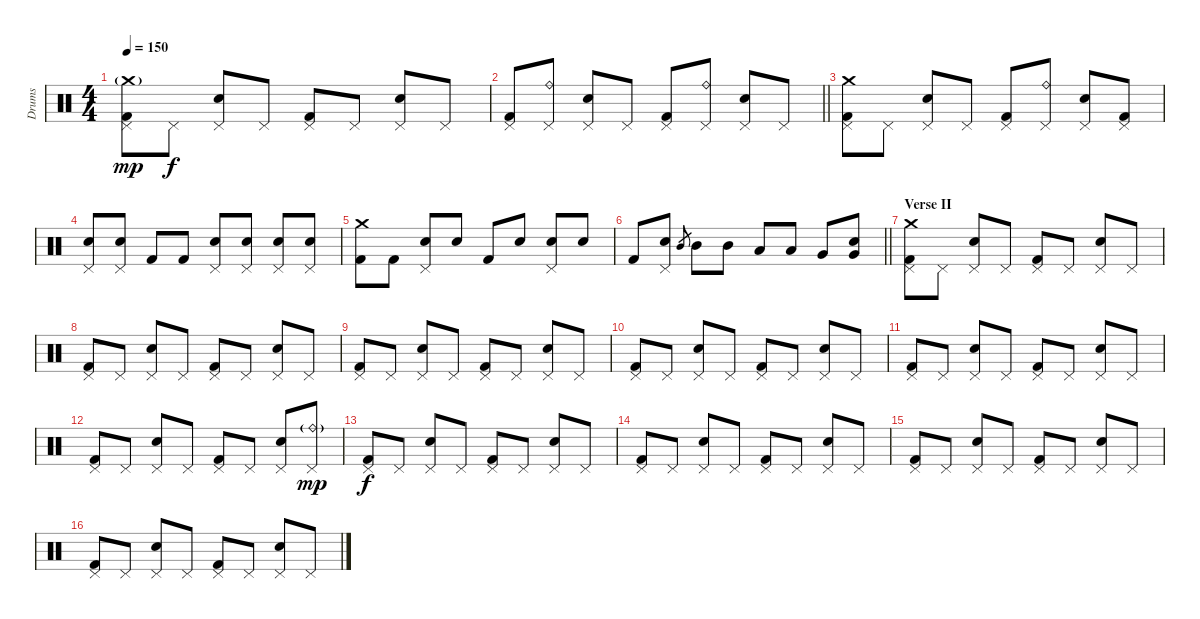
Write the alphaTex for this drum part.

\track ("Drums" "Drums") {instrument percussion}
\staff {score}
\articulation defaults
\ts (4 4)
\tempo 150
\clef neutral
\ks c
("Crash medium (hit)"{g} "Pedal Hi-Hat (hit)" "Kick (hit) 2").8{dy mp} "Pedal Hi-Hat (hit)".8{dy f} ("Pedal Hi-Hat (hit)" "Electric Snare (hit)").8 "Pedal Hi-Hat (hit)".8 ("Pedal Hi-Hat (hit)" "Kick (hit) 2").8 "Pedal Hi-Hat (hit)".8 ("Pedal Hi-Hat (hit)" "Electric Snare (hit)").8 "Pedal Hi-Hat (hit)".8 |
\barLineRight lightlight
("Pedal Hi-Hat (hit)" "Kick (hit) 2").8 ("Ride (bell)" "Pedal Hi-Hat (hit)").8 ("Pedal Hi-Hat (hit)" "Electric Snare (hit)").8 "Pedal Hi-Hat (hit)".8 ("Pedal Hi-Hat (hit)" "Kick (hit) 2").8 ("Ride (bell)" "Pedal Hi-Hat (hit)").8 ("Pedal Hi-Hat (hit)" "Electric Snare (hit)").8 "Pedal Hi-Hat (hit)".8 |
("Crash medium (hit)" "Pedal Hi-Hat (hit)" "Kick (hit) 2").8 "Pedal Hi-Hat (hit)".8 ("Pedal Hi-Hat (hit)" "Electric Snare (hit)").8 "Pedal Hi-Hat (hit)".8 ("Pedal Hi-Hat (hit)" "Kick (hit) 2").8 ("Ride (bell)" "Pedal Hi-Hat (hit)").8 ("Pedal Hi-Hat (hit)" "Electric Snare (hit)").8 ("Pedal Hi-Hat (hit)" "Kick (hit) 2").8 |
("Pedal Hi-Hat (hit)" "Electric Snare (hit)").8 ("Pedal Hi-Hat (hit)" "Electric Snare (hit)").8 "Kick (hit) 2".8 "Kick (hit) 2".8 ("Pedal Hi-Hat (hit)" "Electric Snare (hit)").8 ("Pedal Hi-Hat (hit)" "Electric Snare (hit)").8 ("Pedal Hi-Hat (hit)" "Electric Snare (hit)").8 ("Pedal Hi-Hat (hit)" "Electric Snare (hit)").8 |
("Crash medium (hit)" "Kick (hit) 2").8 "Kick (hit) 2".8 ("Pedal Hi-Hat (hit)" "Electric Snare (hit)").8 "Snare (hit)".8 "Kick (hit) 2".8 "Snare (hit)".8 ("Pedal Hi-Hat (hit)" "Electric Snare (hit)").8 "Snare (hit)".8 |
\barLineRight lightlight "Kick (hit) 2".8
("Pedal Hi-Hat (hit)" "Electric Snare (hit)").8 "Mid Tom (hit)".8{gr} "Mid Tom (hit)".8 "Mid Tom (hit)".8 "Low Tom (hit)".8 "Low Tom (hit)".8 "Very Low Tom (hit)".8 ("Very Low Tom (hit)" "Electric Snare (hit)").8 |
\section ("" "Verse II")
("Crash medium (hit)" "Pedal Hi-Hat (hit)" "Kick (hit) 2").8 "Pedal Hi-Hat (hit)".8 ("Pedal Hi-Hat (hit)" "Electric Snare (hit)").8 "Pedal Hi-Hat (hit)".8 ("Pedal Hi-Hat (hit)" "Kick (hit) 2").8 "Pedal Hi-Hat (hit)".8 ("Pedal Hi-Hat (hit)" "Electric Snare (hit)").8 "Pedal Hi-Hat (hit)".8 |
("Pedal Hi-Hat (hit)" "Kick (hit) 2").8 "Pedal Hi-Hat (hit)".8 ("Pedal Hi-Hat (hit)" "Electric Snare (hit)").8 "Pedal Hi-Hat (hit)".8 ("Pedal Hi-Hat (hit)" "Kick (hit) 2").8 "Pedal Hi-Hat (hit)".8 ("Pedal Hi-Hat (hit)" "Electric Snare (hit)").8 "Pedal Hi-Hat (hit)".8 |
("Pedal Hi-Hat (hit)" "Kick (hit) 2").8 "Pedal Hi-Hat (hit)".8 ("Pedal Hi-Hat (hit)" "Electric Snare (hit)").8 "Pedal Hi-Hat (hit)".8 ("Pedal Hi-Hat (hit)" "Kick (hit) 2").8 "Pedal Hi-Hat (hit)".8 ("Pedal Hi-Hat (hit)" "Electric Snare (hit)").8 "Pedal Hi-Hat (hit)".8 |
("Pedal Hi-Hat (hit)" "Kick (hit) 2").8 "Pedal Hi-Hat (hit)".8 ("Pedal Hi-Hat (hit)" "Electric Snare (hit)").8 "Pedal Hi-Hat (hit)".8 ("Pedal Hi-Hat (hit)" "Kick (hit) 2").8 "Pedal Hi-Hat (hit)".8 ("Pedal Hi-Hat (hit)" "Electric Snare (hit)").8 "Pedal Hi-Hat (hit)".8 |
("Pedal Hi-Hat (hit)" "Kick (hit) 2").8 "Pedal Hi-Hat (hit)".8 ("Pedal Hi-Hat (hit)" "Electric Snare (hit)").8 "Pedal Hi-Hat (hit)".8 ("Pedal Hi-Hat (hit)" "Kick (hit) 2").8 "Pedal Hi-Hat (hit)".8 ("Pedal Hi-Hat (hit)" "Electric Snare (hit)").8 "Pedal Hi-Hat (hit)".8 |
("Pedal Hi-Hat (hit)" "Kick (hit) 2").8 "Pedal Hi-Hat (hit)".8 ("Pedal Hi-Hat (hit)" "Electric Snare (hit)").8 "Pedal Hi-Hat (hit)".8 ("Pedal Hi-Hat (hit)" "Kick (hit) 2").8 "Pedal Hi-Hat (hit)".8 ("Pedal Hi-Hat (hit)" "Electric Snare (hit)").8 ("Ride (bell)"{g} "Pedal Hi-Hat (hit)").8{dy mp} |
("Pedal Hi-Hat (hit)" "Kick (hit) 2").8{dy f} "Pedal Hi-Hat (hit)".8 ("Pedal Hi-Hat (hit)" "Electric Snare (hit)").8 "Pedal Hi-Hat (hit)".8 ("Pedal Hi-Hat (hit)" "Kick (hit) 2").8 "Pedal Hi-Hat (hit)".8 ("Pedal Hi-Hat (hit)" "Electric Snare (hit)").8 "Pedal Hi-Hat (hit)".8 |
("Pedal Hi-Hat (hit)" "Kick (hit) 2").8 "Pedal Hi-Hat (hit)".8 ("Pedal Hi-Hat (hit)" "Electric Snare (hit)").8 "Pedal Hi-Hat (hit)".8 ("Pedal Hi-Hat (hit)" "Kick (hit) 2").8 "Pedal Hi-Hat (hit)".8 ("Pedal Hi-Hat (hit)" "Electric Snare (hit)").8 "Pedal Hi-Hat (hit)".8 |
("Pedal Hi-Hat (hit)" "Kick (hit) 2").8 "Pedal Hi-Hat (hit)".8 ("Pedal Hi-Hat (hit)" "Electric Snare (hit)").8 "Pedal Hi-Hat (hit)".8 ("Pedal Hi-Hat (hit)" "Kick (hit) 2").8 "Pedal Hi-Hat (hit)".8 ("Pedal Hi-Hat (hit)" "Electric Snare (hit)").8 "Pedal Hi-Hat (hit)".8 |
("Pedal Hi-Hat (hit)" "Kick (hit) 2").8 "Pedal Hi-Hat (hit)".8 ("Pedal Hi-Hat (hit)" "Electric Snare (hit)").8 "Pedal Hi-Hat (hit)".8 ("Pedal Hi-Hat (hit)" "Kick (hit) 2").8 "Pedal Hi-Hat (hit)".8 ("Pedal Hi-Hat (hit)" "Electric Snare (hit)").8 "Pedal Hi-Hat (hit)".8
